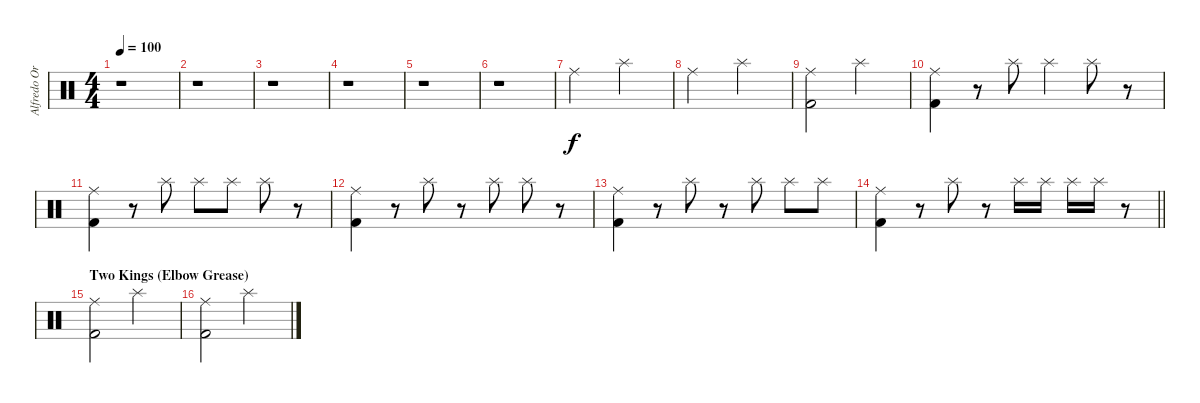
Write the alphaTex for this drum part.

\track ("Alfredo Ortiz (Drums)" "Alfredo Or") {instrument percussion}
\staff {score}
\articulation defaults
\ts (4 4)
\tempo 100
\clef neutral
\ks c
r.1{dy f} |
r.1 |
r.1 |
r.1 |
r.1 |
r.1 |
"Ride (middle)".2{volume 11} "Splash (hit)".2 |
"Ride (middle)".2 "Splash (hit)".2 |
("Ride (middle)" "Kick (hit) 2").2 "Splash (hit)".2 |
("Ride (middle)" "Kick (hit) 2").4 r.8 "Splash (hit)".8 "Splash (hit)".4 "Splash (hit)".8 r.8 |
("Ride (middle)" "Kick (hit) 2").4 r.8 "Splash (hit)".8 "Splash (hit)".8 "Splash (hit)".8 "Splash (hit)".8 r.8 |
("Ride (middle)" "Kick (hit) 2").4 r.8 "Splash (hit)".8 r.8 "Splash (hit)".8 "Splash (hit)".8 r.8 |
("Ride (middle)" "Kick (hit) 2").4 r.8 "Splash (hit)".8 r.8 "Splash (hit)".8 "Splash (hit)".8 "Splash (hit)".8 |
\barLineRight lightlight
("Ride (middle)" "Kick (hit) 2").4 r.8 "Splash (hit)".8 r.8 "Splash (hit)".16 "Splash (hit)".16 "Splash (hit)".16 "Splash (hit)".16 r.8 |
\section ("" "Two Kings (Elbow Grease)")
("Ride (middle)" "Kick (hit) 2").2 "Splash (hit)".2 |
("Ride (middle)" "Kick (hit) 2").2 "Splash (hit)".2
